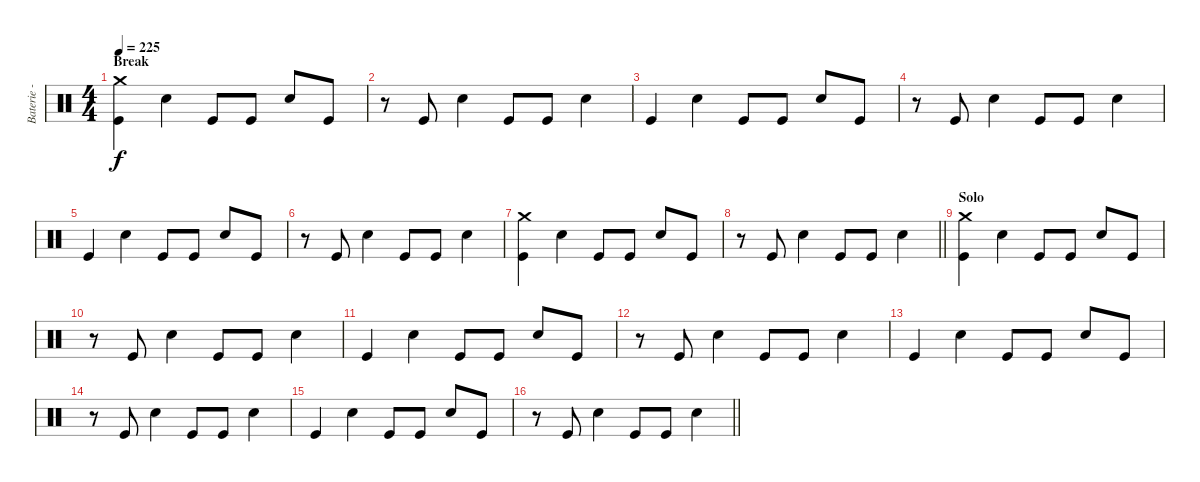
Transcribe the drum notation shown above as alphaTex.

\track ("Baterie - Alex" "Baterie - ") {instrument percussion}
\staff {score}
\articulation defaults
\ts (4 4)
\section ("" "Break")
\tempo 225
\clef neutral
\ks c
("Crash medium (hit)" "Kick (hit)").4{dy f} "Electric Snare (hit)".4 "Kick (hit)".8 "Kick (hit)".8 "Electric Snare (hit)".8 "Kick (hit)".8 |
r.8 "Kick (hit)".8 "Electric Snare (hit)".4 "Kick (hit)".8 "Kick (hit)".8 "Electric Snare (hit)".4 |
"Kick (hit)".4 "Electric Snare (hit)".4 "Kick (hit)".8 "Kick (hit)".8 "Electric Snare (hit)".8 "Kick (hit)".8 |
r.8 "Kick (hit)".8 "Electric Snare (hit)".4 "Kick (hit)".8 "Kick (hit)".8 "Electric Snare (hit)".4 |
"Kick (hit)".4 "Electric Snare (hit)".4 "Kick (hit)".8 "Kick (hit)".8 "Electric Snare (hit)".8 "Kick (hit)".8 |
r.8 "Kick (hit)".8 "Electric Snare (hit)".4 "Kick (hit)".8 "Kick (hit)".8 "Electric Snare (hit)".4 |
("Crash medium (hit)" "Kick (hit)").4 "Electric Snare (hit)".4 "Kick (hit)".8 "Kick (hit)".8 "Electric Snare (hit)".8 "Kick (hit)".8 |
\barLineRight lightlight
r.8 "Kick (hit)".8 "Electric Snare (hit)".4 "Kick (hit)".8 "Kick (hit)".8 "Electric Snare (hit)".4 |
\section ("" "Solo")
("Crash medium (hit)" "Kick (hit)").4 "Electric Snare (hit)".4 "Kick (hit)".8 "Kick (hit)".8 "Electric Snare (hit)".8 "Kick (hit)".8 |
r.8 "Kick (hit)".8 "Electric Snare (hit)".4 "Kick (hit)".8 "Kick (hit)".8 "Electric Snare (hit)".4 |
"Kick (hit)".4 "Electric Snare (hit)".4 "Kick (hit)".8 "Kick (hit)".8 "Electric Snare (hit)".8 "Kick (hit)".8 |
r.8 "Kick (hit)".8 "Electric Snare (hit)".4 "Kick (hit)".8 "Kick (hit)".8 "Electric Snare (hit)".4 |
"Kick (hit)".4 "Electric Snare (hit)".4 "Kick (hit)".8 "Kick (hit)".8 "Electric Snare (hit)".8 "Kick (hit)".8 |
r.8 "Kick (hit)".8 "Electric Snare (hit)".4 "Kick (hit)".8 "Kick (hit)".8 "Electric Snare (hit)".4 |
"Kick (hit)".4 "Electric Snare (hit)".4 "Kick (hit)".8 "Kick (hit)".8 "Electric Snare (hit)".8 "Kick (hit)".8 |
\barLineRight lightlight
r.8 "Kick (hit)".8 "Electric Snare (hit)".4 "Kick (hit)".8 "Kick (hit)".8 "Electric Snare (hit)".4
